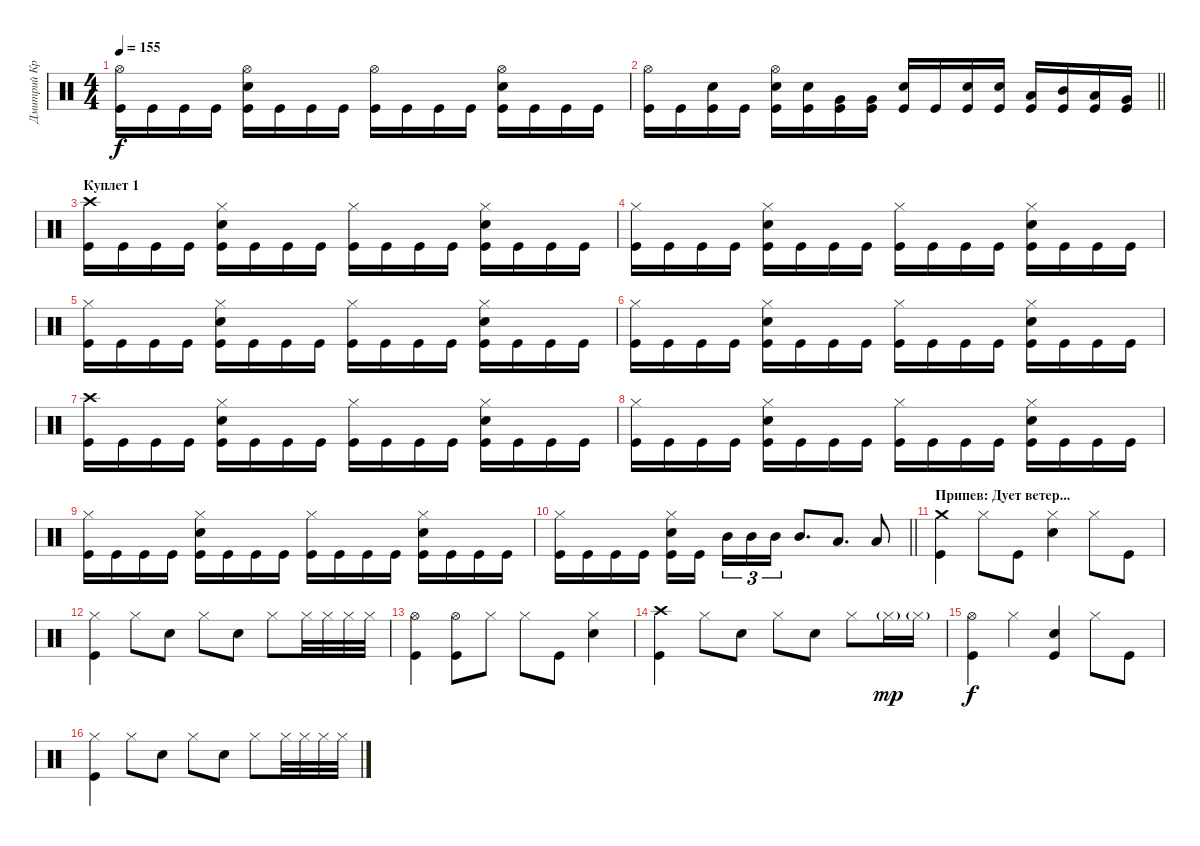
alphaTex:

\track ("Дмитрий Кривенков" "Дмитрий Кр") {instrument percussion}
\staff {score}
\articulation defaults
\ts (4 4)
\tempo 155
\clef neutral
\ks c
("Hi-Hat (open)" "Kick (hit)").16{dy f} "Kick (hit)".16 "Kick (hit)".16 "Kick (hit)".16 ("Hi-Hat (open)" "Snare (hit) 2" "Kick (hit)").16 "Kick (hit)".16 "Kick (hit)".16 "Kick (hit)".16 ("Hi-Hat (open)" "Kick (hit)").16 "Kick (hit)".16 "Kick (hit)".16 "Kick (hit)".16 ("Hi-Hat (open)" "Snare (hit) 2" "Kick (hit)").16 "Kick (hit)".16 "Kick (hit)".16 "Kick (hit)".16 |
\barLineRight lightlight
("Hi-Hat (open)" "Kick (hit)").16 "Kick (hit)".16 ("Snare (hit) 2" "Kick (hit)").16 "Kick (hit)".16 ("Hi-Hat (open)" "Snare (hit) 2" "Kick (hit)").16 ("Snare (hit) 2" "Kick (hit)").16 ("Very Low Tom (hit)" "Kick (hit)").16 ("Very Low Tom (hit)" "Kick (hit)").16 ("Snare (hit) 2" "Kick (hit)").16 "Kick (hit)".16 ("Snare (hit) 2" "Kick (hit)").16 ("Snare (hit) 2" "Kick (hit)").16 ("Low Tom (hit)" "Kick (hit)").16 ("Mid Tom (hit)" "Kick (hit)").16 ("Low Tom (hit)" "Kick (hit)").16 ("Very Low Tom (hit)" "Kick (hit)").16 |
\section ("" "Куплет 1")
("Crash high (hit)" "Kick (hit)").16 "Kick (hit)".16 "Kick (hit)".16 "Kick (hit)".16 ("Hi-Hat (closed)" "Snare (hit) 2" "Kick (hit)").16 "Kick (hit)".16 "Kick (hit)".16 "Kick (hit)".16 ("Hi-Hat (closed)" "Kick (hit)").16 "Kick (hit)".16 "Kick (hit)".16 "Kick (hit)".16 ("Hi-Hat (closed)" "Snare (hit) 2" "Kick (hit)").16 "Kick (hit)".16 "Kick (hit)".16 "Kick (hit)".16 |
("Hi-Hat (closed)" "Kick (hit)").16 "Kick (hit)".16 "Kick (hit)".16 "Kick (hit)".16 ("Hi-Hat (closed)" "Snare (hit) 2" "Kick (hit)").16 "Kick (hit)".16 "Kick (hit)".16 "Kick (hit)".16 ("Hi-Hat (closed)" "Kick (hit)").16 "Kick (hit)".16 "Kick (hit)".16 "Kick (hit)".16 ("Hi-Hat (closed)" "Snare (hit) 2" "Kick (hit)").16 "Kick (hit)".16 "Kick (hit)".16 "Kick (hit)".16 |
("Hi-Hat (closed)" "Kick (hit)").16 "Kick (hit)".16 "Kick (hit)".16 "Kick (hit)".16 ("Hi-Hat (closed)" "Snare (hit) 2" "Kick (hit)").16 "Kick (hit)".16 "Kick (hit)".16 "Kick (hit)".16 ("Hi-Hat (closed)" "Kick (hit)").16 "Kick (hit)".16 "Kick (hit)".16 "Kick (hit)".16 ("Hi-Hat (closed)" "Snare (hit) 2" "Kick (hit)").16 "Kick (hit)".16 "Kick (hit)".16 "Kick (hit)".16 |
("Hi-Hat (closed)" "Kick (hit)").16 "Kick (hit)".16 "Kick (hit)".16 "Kick (hit)".16 ("Hi-Hat (closed)" "Snare (hit) 2" "Kick (hit)").16 "Kick (hit)".16 "Kick (hit)".16 "Kick (hit)".16 ("Hi-Hat (closed)" "Kick (hit)").16 "Kick (hit)".16 "Kick (hit)".16 "Kick (hit)".16 ("Hi-Hat (closed)" "Snare (hit) 2" "Kick (hit)").16 "Kick (hit)".16 "Kick (hit)".16 "Kick (hit)".16 |
("Crash high (hit)" "Kick (hit)").16 "Kick (hit)".16 "Kick (hit)".16 "Kick (hit)".16 ("Hi-Hat (closed)" "Snare (hit) 2" "Kick (hit)").16 "Kick (hit)".16 "Kick (hit)".16 "Kick (hit)".16 ("Hi-Hat (closed)" "Kick (hit)").16 "Kick (hit)".16 "Kick (hit)".16 "Kick (hit)".16 ("Hi-Hat (closed)" "Snare (hit) 2" "Kick (hit)").16 "Kick (hit)".16 "Kick (hit)".16 "Kick (hit)".16 |
("Hi-Hat (closed)" "Kick (hit)").16 "Kick (hit)".16 "Kick (hit)".16 "Kick (hit)".16 ("Hi-Hat (closed)" "Snare (hit) 2" "Kick (hit)").16 "Kick (hit)".16 "Kick (hit)".16 "Kick (hit)".16 ("Hi-Hat (closed)" "Kick (hit)").16 "Kick (hit)".16 "Kick (hit)".16 "Kick (hit)".16 ("Hi-Hat (closed)" "Snare (hit) 2" "Kick (hit)").16 "Kick (hit)".16 "Kick (hit)".16 "Kick (hit)".16 |
("Hi-Hat (closed)" "Kick (hit)").16 "Kick (hit)".16 "Kick (hit)".16 "Kick (hit)".16 ("Hi-Hat (closed)" "Snare (hit) 2" "Kick (hit)").16 "Kick (hit)".16 "Kick (hit)".16 "Kick (hit)".16 ("Hi-Hat (closed)" "Kick (hit)").16 "Kick (hit)".16 "Kick (hit)".16 "Kick (hit)".16 ("Hi-Hat (closed)" "Snare (hit) 2" "Kick (hit)").16 "Kick (hit)".16 "Kick (hit)".16 "Kick (hit)".16 |
\barLineRight lightlight
("Hi-Hat (closed)" "Kick (hit)").16 "Kick (hit)".16 "Kick (hit)".16 "Kick (hit)".16 ("Hi-Hat (closed)" "Snare (hit) 2" "Kick (hit)").16 "Kick (hit)".16{beam splitsecondary} "Mid Tom (hit)".16{tu (3 2)} "Mid Tom (hit)".16{tu (3 2)} "Mid Tom (hit)".16{tu (3 2)} "Mid Tom (hit)".8{d} "Low Tom (hit)".8{d} "Low Floor Tom (hit)".8 |
\section ("" "Припев: Дует ветер...")
("Crash medium (hit)" "Kick (hit)").4 "Hi-Hat (closed)".8 "Kick (hit)".8 ("Hi-Hat (closed)" "Snare (hit) 2").4 "Hi-Hat (closed)".8 "Kick (hit)".8 |
("Hi-Hat (closed)" "Kick (hit)").4 "Hi-Hat (closed)".8 "Snare (hit) 2".8 "Hi-Hat (closed)".8 "Snare (hit) 2".8 "Hi-Hat (closed)".8 "Hi-Hat (closed)".32 "Hi-Hat (closed)".32 "Hi-Hat (closed)".32 "Hi-Hat (closed)".32 |
("Hi-Hat (open)" "Kick (hit)").4 ("Hi-Hat (open)" "Kick (hit)").8 "Hi-Hat (closed)".8 "Hi-Hat (closed)".8 "Kick (hit)".8 ("Hi-Hat (closed)" "Snare (hit) 2").4 |
("Crash high (hit)" "Kick (hit)").4 "Hi-Hat (closed)".8 "Snare (hit) 2".8 "Hi-Hat (closed)".8 "Snare (hit) 2".8 "Hi-Hat (closed)".8 "Hi-Hat (closed)"{g}.16{dy mp} "Hi-Hat (closed)"{g}.16 |
("Hi-Hat (open)" "Kick (hit)").4{dy f} "Hi-Hat (closed)".4 ("Snare (hit) 2" "Kick (hit)").4 "Hi-Hat (closed)".8 "Kick (hit)".8 |
("Hi-Hat (closed)" "Kick (hit)").4 "Hi-Hat (closed)".8 "Snare (hit) 2".8 "Hi-Hat (closed)".8 "Snare (hit) 2".8 "Hi-Hat (closed)".8 "Hi-Hat (closed)".32 "Hi-Hat (closed)".32 "Hi-Hat (closed)".32 "Hi-Hat (closed)".32
